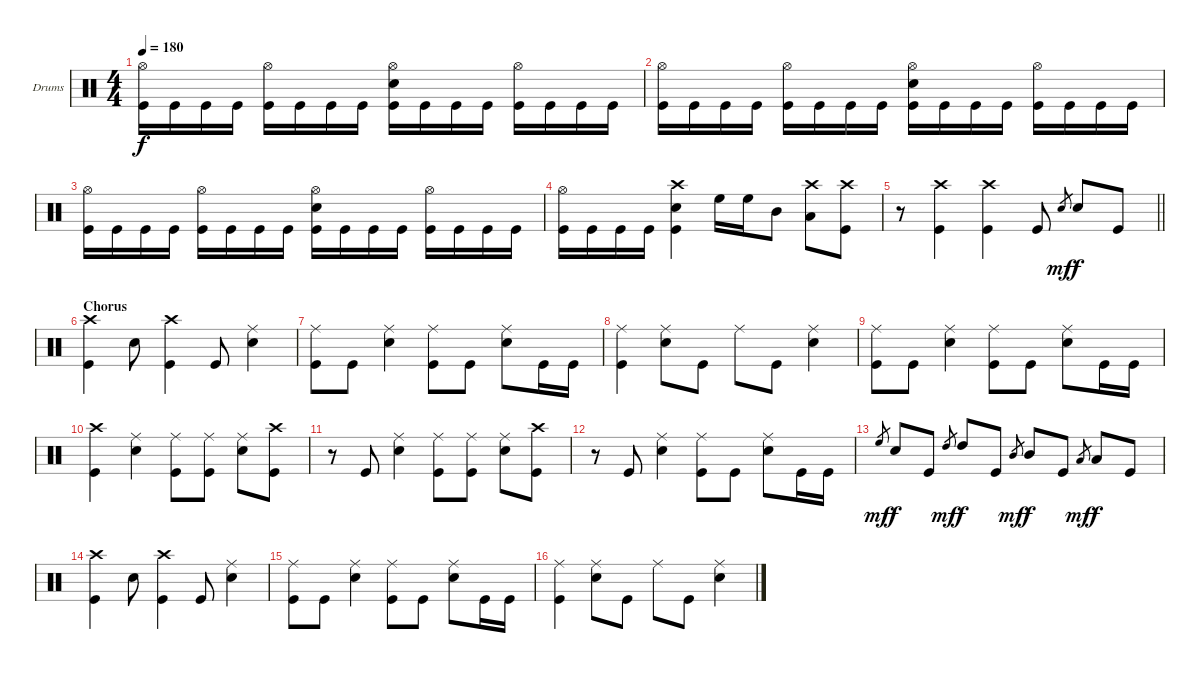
\bracketExtendMode groupsimilarinstruments
\firstSystemTrackNameOrientation horizontal
\otherSystemsTrackNameOrientation horizontal
\track ("Drumkit" "Drums") {instrument percussion}
\staff {score}
\articulation defaults
\ts (4 4)
\tempo 180
\clef neutral
\ks c
("Hi-Hat (open)" "Kick (hit)").16{dy f} "Kick (hit)".16 "Kick (hit)".16 "Kick (hit)".16 ("Hi-Hat (open)" "Kick (hit)").16 "Kick (hit)".16 "Kick (hit)".16 "Kick (hit)".16 ("Hi-Hat (open)" "Snare (hit) 2" "Kick (hit)").16 "Kick (hit)".16 "Kick (hit)".16 "Kick (hit)".16 ("Hi-Hat (open)" "Kick (hit)").16 "Kick (hit)".16 "Kick (hit)".16 "Kick (hit)".16 |
("Hi-Hat (open)" "Kick (hit)").16 "Kick (hit)".16 "Kick (hit)".16 "Kick (hit)".16 ("Hi-Hat (open)" "Kick (hit)").16 "Kick (hit)".16 "Kick (hit)".16 "Kick (hit)".16 ("Hi-Hat (open)" "Snare (hit) 2" "Kick (hit)").16 "Kick (hit)".16 "Kick (hit)".16 "Kick (hit)".16 ("Hi-Hat (open)" "Kick (hit)").16 "Kick (hit)".16 "Kick (hit)".16 "Kick (hit)".16 |
("Hi-Hat (open)" "Kick (hit)").16 "Kick (hit)".16 "Kick (hit)".16 "Kick (hit)".16 ("Hi-Hat (open)" "Kick (hit)").16 "Kick (hit)".16 "Kick (hit)".16 "Kick (hit)".16 ("Hi-Hat (open)" "Snare (hit) 2" "Kick (hit)").16 "Kick (hit)".16 "Kick (hit)".16 "Kick (hit)".16 ("Hi-Hat (open)" "Kick (hit)").16 "Kick (hit)".16 "Kick (hit)".16 "Kick (hit)".16 |
("Hi-Hat (open)" "Kick (hit)").16 "Kick (hit)".16 "Kick (hit)".16 "Kick (hit)".16 ("Crash high (hit)" "Snare (hit) 2" "Kick (hit)").4 "High Floor Tom (hit)".16 "High Floor Tom (hit)".16 "Mid Tom (hit)".8 ("Crash high (hit)" "Low Tom (hit)").8 ("Crash high (hit)" "Kick (hit)").8 |
\barLineRight lightlight
r.8 ("Crash high (hit)" "Kick (hit)").4 ("Crash high (hit)" "Kick (hit)").4 "Kick (hit)".8 "Snare (hit) 2".8{gr dy mf} "Snare (hit) 2".8{dy f} "Kick (hit)".8 |
\section ("" "Chorus")
("Crash high (hit)" "Kick (hit)").4 "Snare (hit) 2".8 ("Crash high (hit)" "Kick (hit)").4 "Kick (hit)".8 ("Ride (middle)" "Snare (hit) 2").4 |
("Ride (middle)" "Kick (hit)").8 "Kick (hit)".8 ("Ride (middle)" "Snare (hit) 2").4 ("Ride (middle)" "Kick (hit)").8 "Kick (hit)".8 ("Ride (middle)" "Snare (hit) 2").8 "Kick (hit)".16 "Kick (hit)".16 |
("Ride (middle)" "Kick (hit)").4 ("Ride (middle)" "Snare (hit) 2").8 "Kick (hit)".8 "Ride (middle)".8 "Kick (hit)".8 ("Ride (middle)" "Snare (hit) 2").4 |
("Ride (middle)" "Kick (hit)").8 "Kick (hit)".8 ("Ride (middle)" "Snare (hit) 2").4 ("Ride (middle)" "Kick (hit)").8 "Kick (hit)".8 ("Ride (middle)" "Snare (hit) 2").8 "Kick (hit)".16 "Kick (hit)".16 |
("Crash high (hit)" "Kick (hit)").4 ("Ride (middle)" "Snare (hit) 2").4 ("Ride (middle)" "Kick (hit)").8 ("Ride (middle)" "Kick (hit)").8 ("Ride (middle)" "Snare (hit) 2").8 ("Crash high (hit)" "Kick (hit)").8 |
r.8 "Kick (hit)".8 ("Ride (middle)" "Snare (hit) 2").4 ("Ride (middle)" "Kick (hit)").8 ("Ride (middle)" "Kick (hit)").8 ("Ride (middle)" "Snare (hit) 2").8 ("Crash high (hit)" "Kick (hit)").8 |
r.8 "Kick (hit)".8 ("Ride (middle)" "Snare (hit) 2").4 ("Ride (middle)" "Kick (hit)").8 "Kick (hit)".8 ("Ride (middle)" "Snare (hit) 2").8 "Kick (hit)".16 "Kick (hit)".16 |
"High Floor Tom (hit)".8{gr dy mf} "Snare (hit) 2".8{dy f} "Kick (hit)".8 "High Tom (hit)".8{gr dy mf} "High Tom (hit)".8{dy f} "Kick (hit)".8 "Mid Tom (hit)".8{gr dy mf} "Mid Tom (hit)".8{dy f} "Kick (hit)".8 "Low Tom (hit)".8{gr dy mf} "Low Tom (hit)".8{dy f} "Kick (hit)".8 |
("Crash high (hit)" "Kick (hit)").4 "Snare (hit) 2".8 ("Crash high (hit)" "Kick (hit)").4 "Kick (hit)".8 ("Ride (middle)" "Snare (hit) 2").4 |
("Ride (middle)" "Kick (hit)").8 "Kick (hit)".8 ("Ride (middle)" "Snare (hit) 2").4 ("Ride (middle)" "Kick (hit)").8 "Kick (hit)".8 ("Ride (middle)" "Snare (hit) 2").8 "Kick (hit)".16 "Kick (hit)".16 |
("Ride (middle)" "Kick (hit)").4 ("Ride (middle)" "Snare (hit) 2").8 "Kick (hit)".8 "Ride (middle)".8 "Kick (hit)".8 ("Ride (middle)" "Snare (hit) 2").4
